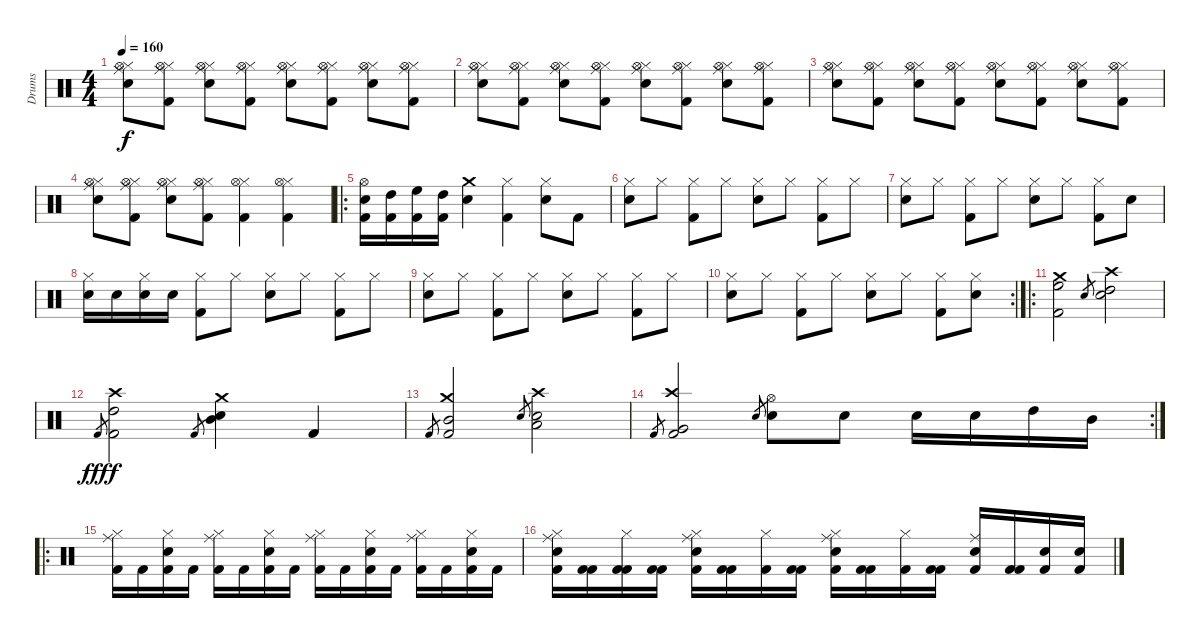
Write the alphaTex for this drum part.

\track ("Drums" "Drums") {instrument percussion}
\staff {score}
\articulation defaults
\ts (4 4)
\tempo 160
\clef neutral
\ks c
("Hi-Hat (closed)" "Electric Snare (hit)" "Hi-Hat (open)" "Ride (middle)").8{dy f} ("Hi-Hat (closed)" "Kick (hit) 2" "Hi-Hat (open)" "Ride (middle)").8 ("Hi-Hat (closed)" "Electric Snare (hit)" "Hi-Hat (open)" "Ride (middle)").8 ("Hi-Hat (closed)" "Kick (hit) 2" "Hi-Hat (open)" "Ride (middle)").8 ("Hi-Hat (closed)" "Electric Snare (hit)" "Hi-Hat (open)" "Ride (middle)").8 ("Hi-Hat (closed)" "Kick (hit) 2" "Hi-Hat (open)" "Ride (middle)").8 ("Hi-Hat (closed)" "Electric Snare (hit)" "Hi-Hat (open)" "Ride (middle)").8 ("Hi-Hat (closed)" "Kick (hit) 2" "Hi-Hat (open)" "Ride (middle)").8 |
("Hi-Hat (closed)" "Electric Snare (hit)" "Hi-Hat (open)" "Ride (middle)").8 ("Hi-Hat (closed)" "Kick (hit) 2" "Hi-Hat (open)" "Ride (middle)").8 ("Hi-Hat (closed)" "Electric Snare (hit)" "Hi-Hat (open)" "Ride (middle)").8 ("Hi-Hat (closed)" "Kick (hit) 2" "Hi-Hat (open)" "Ride (middle)").8 ("Hi-Hat (closed)" "Electric Snare (hit)" "Hi-Hat (open)" "Ride (middle)").8 ("Hi-Hat (closed)" "Kick (hit) 2" "Hi-Hat (open)" "Ride (middle)").8 ("Hi-Hat (closed)" "Electric Snare (hit)" "Hi-Hat (open)" "Ride (middle)").8 ("Hi-Hat (closed)" "Kick (hit) 2" "Hi-Hat (open)" "Ride (middle)").8 |
("Hi-Hat (closed)" "Electric Snare (hit)" "Hi-Hat (open)" "Ride (middle)").8 ("Hi-Hat (closed)" "Kick (hit) 2" "Hi-Hat (open)" "Ride (middle)").8 ("Hi-Hat (closed)" "Electric Snare (hit)" "Hi-Hat (open)" "Ride (middle)").8 ("Hi-Hat (closed)" "Kick (hit) 2" "Hi-Hat (open)" "Ride (middle)").8 ("Hi-Hat (closed)" "Electric Snare (hit)" "Hi-Hat (open)" "Ride (middle)").8 ("Hi-Hat (closed)" "Kick (hit) 2" "Hi-Hat (open)" "Ride (middle)").8 ("Hi-Hat (closed)" "Electric Snare (hit)" "Hi-Hat (open)" "Ride (middle)").8 ("Hi-Hat (closed)" "Kick (hit) 2" "Hi-Hat (open)" "Ride (middle)").8 |
("Hi-Hat (closed)" "Electric Snare (hit)" "Hi-Hat (open)" "Ride (middle)").8 ("Hi-Hat (closed)" "Kick (hit) 2" "Hi-Hat (open)" "Ride (middle)").8 ("Hi-Hat (closed)" "Electric Snare (hit)" "Hi-Hat (open)" "Ride (middle)").8 ("Hi-Hat (closed)" "Kick (hit) 2" "Hi-Hat (open)" "Ride (middle)").8 ("Hi-Hat (closed)" "Hi-Hat (open)" "Kick (hit) 2").4 ("Hi-Hat (closed)" "Hi-Hat (open)" "Kick (hit) 2").4 |
\ro
("Kick (hit) 2" "Hi-Hat (open)" "Electric Snare (hit)").16 ("Kick (hit) 2" "High Tom (hit)").16 ("Kick (hit) 2" "High Floor Tom (hit)").16 ("Kick (hit) 2" "High Tom (hit)").16 ("Electric Snare (hit)" "Crash medium (hit)").4 ("Hi-Hat (closed)" "Kick (hit) 2").4 ("Hi-Hat (closed)" "Electric Snare (hit)").8 "Kick (hit) 2".8 |
("Hi-Hat (closed)" "Electric Snare (hit)").8 "Hi-Hat (closed)".8 ("Hi-Hat (closed)" "Kick (hit) 2").8 "Hi-Hat (closed)".8 ("Hi-Hat (closed)" "Electric Snare (hit)").8 "Hi-Hat (closed)".8 ("Hi-Hat (closed)" "Kick (hit) 2").8 "Hi-Hat (closed)".8 |
("Hi-Hat (closed)" "Electric Snare (hit)").8 "Hi-Hat (closed)".8 ("Hi-Hat (closed)" "Kick (hit) 2").8 "Hi-Hat (closed)".8 ("Hi-Hat (closed)" "Electric Snare (hit)").8 "Hi-Hat (closed)".8 ("Hi-Hat (closed)" "Kick (hit) 2").8 "Electric Snare (hit)".8 |
("Hi-Hat (closed)" "Electric Snare (hit)").16 "Electric Snare (hit)".16 ("Hi-Hat (closed)" "Electric Snare (hit)").16 "Electric Snare (hit)".16 ("Hi-Hat (closed)" "Kick (hit) 2").8 "Hi-Hat (closed)".8 ("Hi-Hat (closed)" "Electric Snare (hit)").8 "Hi-Hat (closed)".8 ("Hi-Hat (closed)" "Kick (hit) 2").8 "Hi-Hat (closed)".8 |
("Hi-Hat (closed)" "Electric Snare (hit)").8 "Hi-Hat (closed)".8 ("Hi-Hat (closed)" "Kick (hit) 2").8 "Hi-Hat (closed)".8 ("Hi-Hat (closed)" "Electric Snare (hit)").8 "Hi-Hat (closed)".8 ("Hi-Hat (closed)" "Kick (hit) 2").8 "Hi-Hat (closed)".8 |
\rc 2
("Hi-Hat (closed)" "Electric Snare (hit)").8 "Hi-Hat (closed)".8 ("Hi-Hat (closed)" "Kick (hit) 2").8 "Hi-Hat (closed)".8 ("Hi-Hat (closed)" "Electric Snare (hit)").8 "Hi-Hat (closed)".8 ("Hi-Hat (closed)" "Kick (hit) 2").8 ("Hi-Hat (closed)" "Electric Snare (hit)").8 |
\ro
("High Floor Tom (hit)" "Kick (hit) 2" "Crash medium (hit)").2 "Electric Snare (hit)".8{gr} ("High Tom (hit)" "Electric Snare (hit)" "Crash high (hit)").2 |
"Kick (hit) 2".8{gr dy fff} ("High Tom (hit)" "Kick (hit) 2" "Crash high (hit)").2{dy f} "Kick (hit) 2".8{gr} ("Mid Tom (hit)" "Electric Snare (hit)" "Crash medium (hit)").4 "Kick (hit) 2".4 |
"Kick (hit) 2".8{gr} ("Mid Tom (hit)" "Kick (hit) 2" "Crash medium (hit)").2 "Electric Snare (hit)".8{gr} ("Low Tom (hit)" "Electric Snare (hit)" "Crash high (hit)").2 |
\rc 2 "Kick (hit) 2".8{gr}
("Very Low Tom (hit)" "Kick (hit) 2" "Crash high (hit)").2 "Electric Snare (hit)".8{gr} ("Electric Snare (hit)" "Hi-Hat (open)").8 "Electric Snare (hit)".8 "Electric Snare (hit)".16 "Electric Snare (hit)".16 "High Tom (hit)".16 "Mid Tom (hit)".16 |
\ro
("Kick (hit) 2" "Ride (middle)" "Hi-Hat (closed)").16 "Kick (hit) 2".16 ("Electric Snare (hit)" "Kick (hit) 2" "Hi-Hat (closed)").16 "Kick (hit) 2".16 ("Kick (hit) 2" "Ride (middle)" "Hi-Hat (closed)").16 "Kick (hit) 2".16 ("Electric Snare (hit)" "Kick (hit) 2" "Hi-Hat (closed)").16 "Kick (hit) 2".16 ("Kick (hit) 2" "Ride (middle)" "Hi-Hat (closed)").16 "Kick (hit) 2".16 ("Electric Snare (hit)" "Kick (hit) 2" "Hi-Hat (closed)").16 "Kick (hit) 2".16 ("Kick (hit) 2" "Ride (middle)" "Hi-Hat (closed)").16 "Kick (hit) 2".16 ("Electric Snare (hit)" "Kick (hit) 2" "Hi-Hat (closed)").16 "Kick (hit) 2".16 |
("Electric Snare (hit)" "Kick (hit) 2" "Ride (middle)" "Hi-Hat (closed)").16 ("Kick (hit) 2" "Kick (hit) 2").16 ("Kick (hit) 2" "Kick (hit) 2" "Hi-Hat (closed)").16 ("Kick (hit) 2" "Kick (hit) 2").16 ("Electric Snare (hit)" "Kick (hit) 2" "Ride (middle)" "Hi-Hat (closed)").16 ("Kick (hit) 2" "Kick (hit) 2").16 ("Kick (hit) 2" "Hi-Hat (closed)").16 ("Kick (hit) 2" "Kick (hit) 2").16 ("Electric Snare (hit)" "Kick (hit) 2" "Ride (middle)" "Hi-Hat (closed)").16 ("Kick (hit) 2" "Kick (hit) 2").16 ("Kick (hit) 2" "Hi-Hat (closed)").16 ("Kick (hit) 2" "Kick (hit) 2").16 ("Electric Snare (hit)" "Kick (hit) 2" "Ride (middle)").16 ("Kick (hit) 2" "Kick (hit) 2").16 ("Electric Snare (hit)" "Kick (hit) 2").16 ("Electric Snare (hit)" "Kick (hit) 2").16
